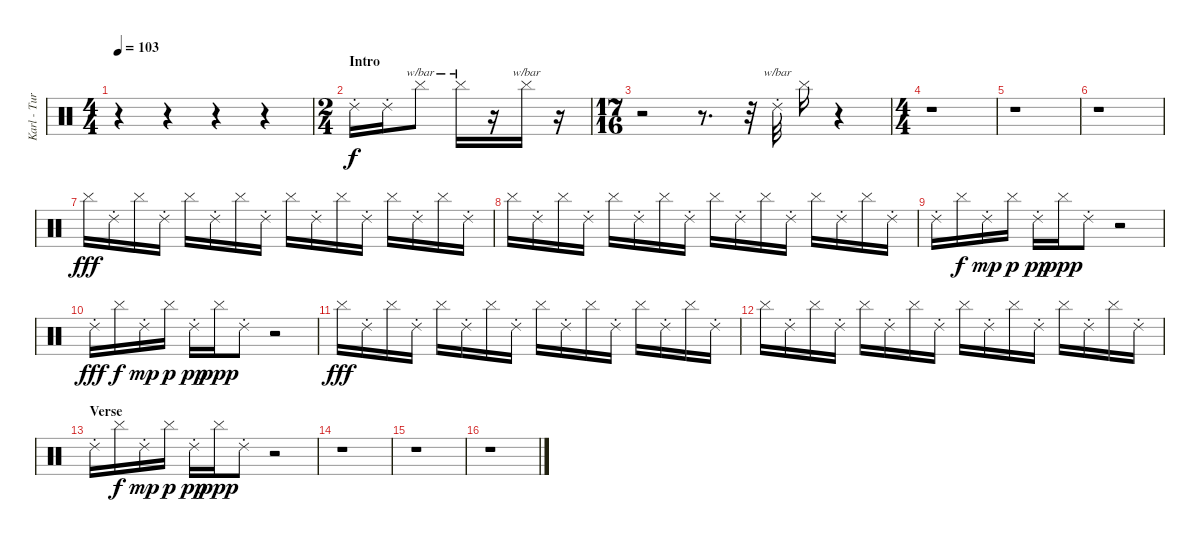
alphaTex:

\track ("Karl - Turntables" "Karl - Tur") {instrument percussion}
\staff {score}
\articulation defaults
\ts (4 4)
\tempo 103
\clef neutral
\ks c
r.4{dy f} r.4 r.4 r.4 |
\ts (2 4)
\section ("" "Intro")
"Ride (choke) 2".16 "Ride (choke) 2".16 "Cymbal (hit)".8{tbe (custom default 0 0 45 -4 60 -4)} "Cymbal (hit)".16{tbe (custom default 0 0 45 -4 60 -4)} r.16 "Cymbal (hit)".16{tbe (custom default 0 -4 45 -4 60 0)} r.16 |
\ts (17 16)
r.2 r.8{d} r.32 "Ride (choke) 2".32{tbe (custom default 0 0 45 -4 60 -4)} "Cymbal (hit)".16 r.4 |
\ts (4 4)
r.1 |
r.1 |
r.1 |
"Cymbal (hit)".16{dy fff} "Ride (choke) 2".16 "Cymbal (hit)".16 "Ride (choke) 2".16 "Cymbal (hit)".16 "Ride (choke) 2".16 "Cymbal (hit)".16 "Ride (choke) 2".16 "Cymbal (hit)".16 "Ride (choke) 2".16 "Cymbal (hit)".16 "Ride (choke) 2".16 "Cymbal (hit)".16 "Ride (choke) 2".16 "Cymbal (hit)".16 "Ride (choke) 2".16 |
"Cymbal (hit)".16 "Ride (choke) 2".16 "Cymbal (hit)".16 "Ride (choke) 2".16 "Cymbal (hit)".16 "Ride (choke) 2".16 "Cymbal (hit)".16 "Ride (choke) 2".16 "Cymbal (hit)".16 "Ride (choke) 2".16 "Cymbal (hit)".16 "Ride (choke) 2".16 "Cymbal (hit)".16 "Ride (choke) 2".16 "Cymbal (hit)".16 "Ride (choke) 2".16 |
"Ride (choke) 2".16 "Cymbal (hit)".16{dy f} "Ride (choke) 2".16{dy mp} "Cymbal (hit)".16{dy p} "Ride (choke) 2".16{dy pp} "Cymbal (hit)".16{dy ppp} "Ride (choke) 2".8 r.2 |
"Ride (choke) 2".16{dy fff} "Cymbal (hit)".16{dy f} "Ride (choke) 2".16{dy mp} "Cymbal (hit)".16{dy p} "Ride (choke) 2".16{dy pp} "Cymbal (hit)".16{dy ppp} "Ride (choke) 2".8 r.2 |
"Cymbal (hit)".16{dy fff} "Ride (choke) 2".16 "Cymbal (hit)".16 "Ride (choke) 2".16 "Cymbal (hit)".16 "Ride (choke) 2".16 "Cymbal (hit)".16 "Ride (choke) 2".16 "Cymbal (hit)".16 "Ride (choke) 2".16 "Cymbal (hit)".16 "Ride (choke) 2".16 "Cymbal (hit)".16 "Ride (choke) 2".16 "Cymbal (hit)".16 "Ride (choke) 2".16 |
"Cymbal (hit)".16 "Ride (choke) 2".16 "Cymbal (hit)".16 "Ride (choke) 2".16 "Cymbal (hit)".16 "Ride (choke) 2".16 "Cymbal (hit)".16 "Ride (choke) 2".16 "Cymbal (hit)".16 "Ride (choke) 2".16 "Cymbal (hit)".16 "Ride (choke) 2".16 "Cymbal (hit)".16 "Ride (choke) 2".16 "Cymbal (hit)".16 "Ride (choke) 2".16 |
\section ("" "Verse")
"Ride (choke) 2".16 "Cymbal (hit)".16{dy f} "Ride (choke) 2".16{dy mp} "Cymbal (hit)".16{dy p} "Ride (choke) 2".16{dy pp} "Cymbal (hit)".16{dy ppp} "Ride (choke) 2".8 r.2 |
r.1 |
r.1 |
r.1
